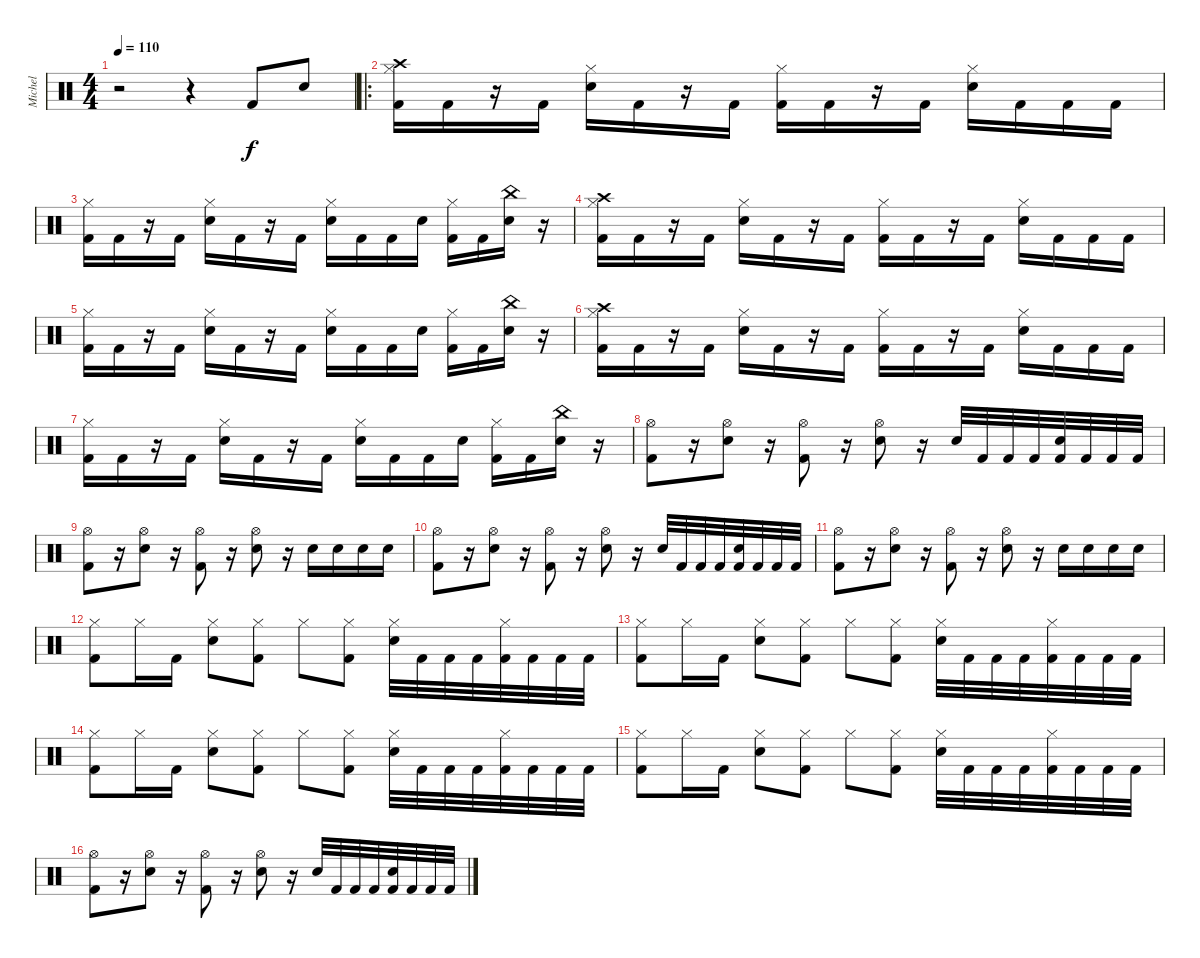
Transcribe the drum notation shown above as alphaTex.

\track ("Michel" "Michel") {instrument percussion}
\staff {score}
\articulation defaults
\ts (4 4)
\tempo 110
\clef neutral
\ks c
r.2{dy f} r.4 "Kick (hit) 2".8 "Snare (hit) 2".8 |
\ro
("Crash high (hit)" "Kick (hit) 2" "Hi-Hat (closed)").16 "Kick (hit) 2".16 r.16 "Kick (hit) 2".16 ("Snare (hit) 2" "Hi-Hat (closed)").16 "Kick (hit) 2".16 r.16 "Kick (hit) 2".16 ("Kick (hit) 2" "Hi-Hat (closed)").16 "Kick (hit) 2".16 r.16 "Kick (hit) 2".16 ("Snare (hit) 2" "Hi-Hat (closed)").16 "Kick (hit) 2".16 "Kick (hit) 2".16 "Kick (hit) 2".16 |
("Kick (hit) 2" "Hi-Hat (closed)").16 "Kick (hit) 2".16 r.16 "Kick (hit) 2".16 ("Snare (hit) 2" "Hi-Hat (closed)").16 "Kick (hit) 2".16 r.16 "Kick (hit) 2".16 ("Snare (hit) 2" "Hi-Hat (closed)").16 "Kick (hit) 2".16 "Kick (hit) 2".16 "Snare (hit) 2".16 ("Kick (hit) 2" "Hi-Hat (closed)").16 "Kick (hit) 2".16 ("China (hit)" "Snare (hit) 2").16 r.16 |
("Crash high (hit)" "Kick (hit) 2" "Hi-Hat (closed)").16 "Kick (hit) 2".16 r.16 "Kick (hit) 2".16 ("Snare (hit) 2" "Hi-Hat (closed)").16 "Kick (hit) 2".16 r.16 "Kick (hit) 2".16 ("Kick (hit) 2" "Hi-Hat (closed)").16 "Kick (hit) 2".16 r.16 "Kick (hit) 2".16 ("Snare (hit) 2" "Hi-Hat (closed)").16 "Kick (hit) 2".16 "Kick (hit) 2".16 "Kick (hit) 2".16 |
("Kick (hit) 2" "Hi-Hat (closed)").16 "Kick (hit) 2".16 r.16 "Kick (hit) 2".16 ("Snare (hit) 2" "Hi-Hat (closed)").16 "Kick (hit) 2".16 r.16 "Kick (hit) 2".16 ("Snare (hit) 2" "Hi-Hat (closed)").16 "Kick (hit) 2".16 "Kick (hit) 2".16 "Snare (hit) 2".16 ("Kick (hit) 2" "Hi-Hat (closed)").16 "Kick (hit) 2".16 ("China (hit)" "Snare (hit) 2").16 r.16 |
("Crash high (hit)" "Kick (hit) 2" "Hi-Hat (closed)").16 "Kick (hit) 2".16 r.16 "Kick (hit) 2".16 ("Snare (hit) 2" "Hi-Hat (closed)").16 "Kick (hit) 2".16 r.16 "Kick (hit) 2".16 ("Kick (hit) 2" "Hi-Hat (closed)").16 "Kick (hit) 2".16 r.16 "Kick (hit) 2".16 ("Snare (hit) 2" "Hi-Hat (closed)").16 "Kick (hit) 2".16 "Kick (hit) 2".16 "Kick (hit) 2".16 |
("Kick (hit) 2" "Hi-Hat (closed)").16 "Kick (hit) 2".16 r.16 "Kick (hit) 2".16 ("Snare (hit) 2" "Hi-Hat (closed)").16 "Kick (hit) 2".16 r.16 "Kick (hit) 2".16 ("Snare (hit) 2" "Hi-Hat (closed)").16 "Kick (hit) 2".16 "Kick (hit) 2".16 "Snare (hit) 2".16 ("Kick (hit) 2" "Hi-Hat (closed)").16 "Kick (hit) 2".16 ("China (hit)" "Snare (hit) 2").16 r.16 |
("Kick (hit) 2" "Hi-Hat (open)").8 r.16 ("Snare (hit) 2" "Hi-Hat (open)").8 r.16 ("Kick (hit) 2" "Hi-Hat (open)").8 r.16 ("Snare (hit) 2" "Hi-Hat (open)").8 r.16 "Snare (hit) 2".32 "Kick (hit) 2".32 "Kick (hit) 2".32 "Kick (hit) 2".32 ("Snare (hit) 2" "Kick (hit) 2").32 "Kick (hit) 2".32 "Kick (hit) 2".32 "Kick (hit) 2".32 |
("Kick (hit) 2" "Hi-Hat (open)").8 r.16 ("Snare (hit) 2" "Hi-Hat (open)").8 r.16 ("Kick (hit) 2" "Hi-Hat (open)").8 r.16 ("Snare (hit) 2" "Hi-Hat (open)").8 r.16 "Snare (hit) 2".16 "Snare (hit) 2".16 "Snare (hit) 2".16 "Snare (hit) 2".16 |
("Kick (hit) 2" "Hi-Hat (open)").8 r.16 ("Snare (hit) 2" "Hi-Hat (open)").8 r.16 ("Kick (hit) 2" "Hi-Hat (open)").8 r.16 ("Snare (hit) 2" "Hi-Hat (open)").8 r.16 "Snare (hit) 2".32 "Kick (hit) 2".32 "Kick (hit) 2".32 "Kick (hit) 2".32 ("Snare (hit) 2" "Kick (hit) 2").32 "Kick (hit) 2".32 "Kick (hit) 2".32 "Kick (hit) 2".32 |
("Kick (hit) 2" "Hi-Hat (open)").8 r.16 ("Snare (hit) 2" "Hi-Hat (open)").8 r.16 ("Kick (hit) 2" "Hi-Hat (open)").8 r.16 ("Snare (hit) 2" "Hi-Hat (open)").8 r.16 "Snare (hit) 2".16 "Snare (hit) 2".16 "Snare (hit) 2".16 "Snare (hit) 2".16 |
("Kick (hit) 2" "Hi-Hat (closed)").8 "Hi-Hat (closed)".16 "Kick (hit) 2".16 ("Snare (hit) 2" "Hi-Hat (closed)").8 ("Kick (hit) 2" "Hi-Hat (closed)").8 "Hi-Hat (closed)".8 ("Kick (hit) 2" "Hi-Hat (closed)").8 ("Snare (hit) 2" "Hi-Hat (closed)").32 "Kick (hit) 2".32 "Kick (hit) 2".32 "Kick (hit) 2".32 ("Kick (hit) 2" "Hi-Hat (closed)").32 "Kick (hit) 2".32 "Kick (hit) 2".32 "Kick (hit) 2".32 |
("Kick (hit) 2" "Hi-Hat (closed)").8 "Hi-Hat (closed)".16 "Kick (hit) 2".16 ("Snare (hit) 2" "Hi-Hat (closed)").8 ("Kick (hit) 2" "Hi-Hat (closed)").8 "Hi-Hat (closed)".8 ("Kick (hit) 2" "Hi-Hat (closed)").8 ("Snare (hit) 2" "Hi-Hat (closed)").32 "Kick (hit) 2".32 "Kick (hit) 2".32 "Kick (hit) 2".32 ("Kick (hit) 2" "Hi-Hat (closed)").32 "Kick (hit) 2".32 "Kick (hit) 2".32 "Kick (hit) 2".32 |
("Kick (hit) 2" "Hi-Hat (closed)").8 "Hi-Hat (closed)".16 "Kick (hit) 2".16 ("Snare (hit) 2" "Hi-Hat (closed)").8 ("Kick (hit) 2" "Hi-Hat (closed)").8 "Hi-Hat (closed)".8 ("Kick (hit) 2" "Hi-Hat (closed)").8 ("Snare (hit) 2" "Hi-Hat (closed)").32 "Kick (hit) 2".32 "Kick (hit) 2".32 "Kick (hit) 2".32 ("Kick (hit) 2" "Hi-Hat (closed)").32 "Kick (hit) 2".32 "Kick (hit) 2".32 "Kick (hit) 2".32 |
("Kick (hit) 2" "Hi-Hat (closed)").8 "Hi-Hat (closed)".16 "Kick (hit) 2".16 ("Snare (hit) 2" "Hi-Hat (closed)").8 ("Kick (hit) 2" "Hi-Hat (closed)").8 "Hi-Hat (closed)".8 ("Kick (hit) 2" "Hi-Hat (closed)").8 ("Snare (hit) 2" "Hi-Hat (closed)").32 "Kick (hit) 2".32 "Kick (hit) 2".32 "Kick (hit) 2".32 ("Kick (hit) 2" "Hi-Hat (closed)").32 "Kick (hit) 2".32 "Kick (hit) 2".32 "Kick (hit) 2".32 |
("Kick (hit) 2" "Hi-Hat (open)").8 r.16 ("Snare (hit) 2" "Hi-Hat (open)").8 r.16 ("Kick (hit) 2" "Hi-Hat (open)").8 r.16 ("Snare (hit) 2" "Hi-Hat (open)").8 r.16 "Snare (hit) 2".32 "Kick (hit) 2".32 "Kick (hit) 2".32 "Kick (hit) 2".32 ("Snare (hit) 2" "Kick (hit) 2").32 "Kick (hit) 2".32 "Kick (hit) 2".32 "Kick (hit) 2".32
